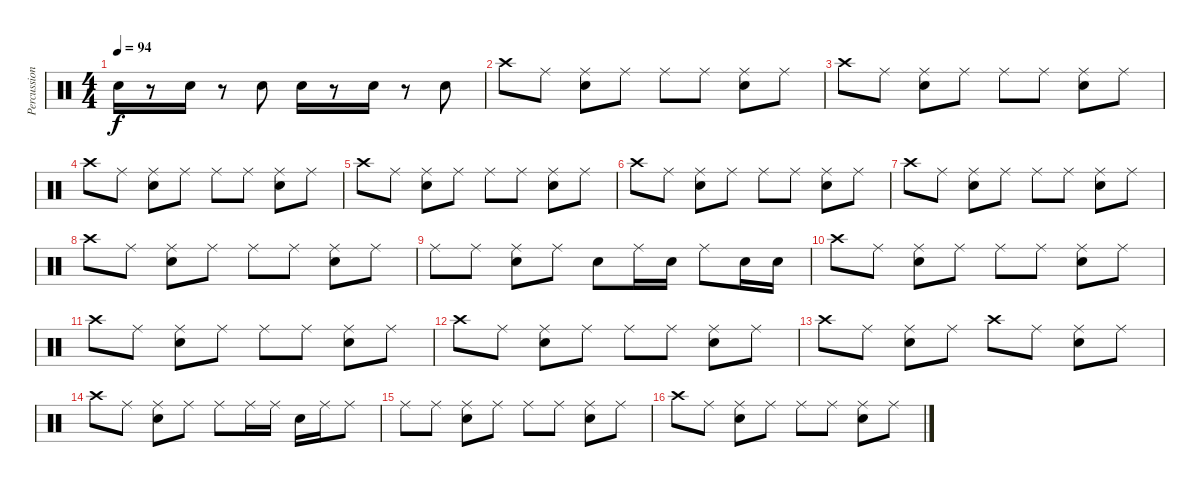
\track ("Percussion" "Percussion") {instrument percussion}
\staff {score}
\articulation defaults
\ts (4 4)
\tempo 94
\clef neutral
\ks c "Snare (hit) 2".16{dy f}
r.8 "Snare (hit) 2".16 r.8 "Snare (hit) 2".8 "Snare (hit) 2".16 r.8 "Snare (hit) 2".16 r.8 "Snare (hit) 2".8 |
"Crash high (hit)".8 "Ride (middle)".8 ("Ride (middle)" "Snare (hit) 2").8 "Ride (middle)".8 "Ride (middle)".8 "Ride (middle)".8 ("Ride (middle)" "Snare (hit) 2").8 "Ride (middle)".8 |
"Crash high (hit)".8 "Ride (middle)".8 ("Ride (middle)" "Snare (hit) 2").8 "Ride (middle)".8 "Ride (middle)".8 "Ride (middle)".8 ("Ride (middle)" "Snare (hit) 2").8 "Ride (middle)".8 |
"Crash high (hit)".8 "Ride (middle)".8 ("Ride (middle)" "Snare (hit) 2").8 "Ride (middle)".8 "Ride (middle)".8 "Ride (middle)".8 ("Ride (middle)" "Snare (hit) 2").8 "Ride (middle)".8 |
"Crash high (hit)".8 "Ride (middle)".8 ("Ride (middle)" "Snare (hit) 2").8 "Ride (middle)".8 "Ride (middle)".8 "Ride (middle)".8 ("Ride (middle)" "Snare (hit) 2").8 "Ride (middle)".8 |
"Crash high (hit)".8 "Ride (middle)".8 ("Ride (middle)" "Snare (hit) 2").8 "Ride (middle)".8 "Ride (middle)".8 "Ride (middle)".8 ("Ride (middle)" "Snare (hit) 2").8 "Ride (middle)".8 |
"Crash high (hit)".8 "Ride (middle)".8 ("Ride (middle)" "Snare (hit) 2").8 "Ride (middle)".8 "Ride (middle)".8 "Ride (middle)".8 ("Ride (middle)" "Snare (hit) 2").8 "Ride (middle)".8 |
"Crash high (hit)".8 "Ride (middle)".8 ("Ride (middle)" "Snare (hit) 2").8 "Ride (middle)".8 "Ride (middle)".8 "Ride (middle)".8 ("Ride (middle)" "Snare (hit) 2").8 "Ride (middle)".8 |
"Ride (middle)".8 "Ride (middle)".8 ("Ride (middle)" "Snare (hit) 2").8 "Ride (middle)".8 "Snare (hit) 2".8 "Ride (middle)".16 "Snare (hit) 2".16 "Ride (middle)".8 "Snare (hit) 2".16 "Snare (hit) 2".16 |
"Crash high (hit)".8 "Ride (middle)".8 ("Ride (middle)" "Snare (hit) 2").8 "Ride (middle)".8 "Ride (middle)".8 "Ride (middle)".8 ("Ride (middle)" "Snare (hit) 2").8 "Ride (middle)".8 |
"Crash high (hit)".8 "Ride (middle)".8 ("Ride (middle)" "Snare (hit) 2").8 "Ride (middle)".8 "Ride (middle)".8 "Ride (middle)".8 ("Ride (middle)" "Snare (hit) 2").8 "Ride (middle)".8 |
"Crash high (hit)".8 "Ride (middle)".8 ("Ride (middle)" "Snare (hit) 2").8 "Ride (middle)".8 "Ride (middle)".8 "Ride (middle)".8 ("Ride (middle)" "Snare (hit) 2").8 "Ride (middle)".8 |
"Crash high (hit)".8 "Ride (middle)".8 ("Ride (middle)" "Snare (hit) 2").8 "Ride (middle)".8 "Crash high (hit)".8 "Ride (middle)".8 ("Ride (middle)" "Snare (hit) 2").8 "Ride (middle)".8 |
"Crash high (hit)".8 "Ride (middle)".8 ("Ride (middle)" "Snare (hit) 2").8 "Ride (middle)".8 "Ride (middle)".8 "Ride (middle)".16 "Ride (middle)".16 "Snare (hit) 2".16 "Ride (middle)".16 "Ride (middle)".8 |
"Ride (middle)".8 "Ride (middle)".8 ("Ride (middle)" "Snare (hit) 2").8 "Ride (middle)".8 "Ride (middle)".8 "Ride (middle)".8 ("Ride (middle)" "Snare (hit) 2").8 "Ride (middle)".8 |
"Crash high (hit)".8 "Ride (middle)".8 ("Ride (middle)" "Snare (hit) 2").8 "Ride (middle)".8 "Ride (middle)".8 "Ride (middle)".8 ("Ride (middle)" "Snare (hit) 2").8 "Ride (middle)".8
